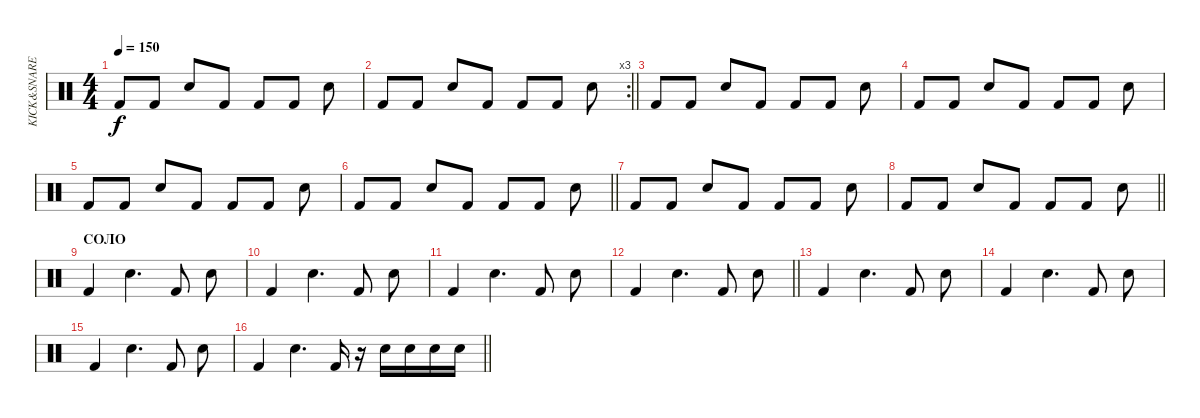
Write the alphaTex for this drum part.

\track ("KICK&SNARE" "KICK&SNARE") {instrument percussion}
\staff {score}
\articulation defaults
\ts (4 4)
\tempo 150
\clef neutral
\ks c "Kick (hit) 2".8{dy f} "Kick (hit) 2".8 "Snare (hit) 2".8 "Kick (hit) 2".8 "Kick (hit) 2".8 "Kick (hit) 2".8 "Snare (hit) 2".8
|
\rc 3
\barLineRight lightlight "Kick (hit) 2".8 "Kick (hit) 2".8 "Snare (hit) 2".8 "Kick (hit) 2".8 "Kick (hit) 2".8 "Kick (hit) 2".8 "Snare (hit) 2".8
|
"Kick (hit) 2".8 "Kick (hit) 2".8 "Snare (hit) 2".8 "Kick (hit) 2".8 "Kick (hit) 2".8 "Kick (hit) 2".8 "Snare (hit) 2".8 |
"Kick (hit) 2".8 "Kick (hit) 2".8 "Snare (hit) 2".8 "Kick (hit) 2".8 "Kick (hit) 2".8 "Kick (hit) 2".8 "Snare (hit) 2".8 |
"Kick (hit) 2".8 "Kick (hit) 2".8 "Snare (hit) 2".8 "Kick (hit) 2".8 "Kick (hit) 2".8 "Kick (hit) 2".8 "Snare (hit) 2".8 |
\barLineRight lightlight "Kick (hit) 2".8 "Kick (hit) 2".8 "Snare (hit) 2".8 "Kick (hit) 2".8 "Kick (hit) 2".8 "Kick (hit) 2".8 "Snare (hit) 2".8
|
"Kick (hit) 2".8 "Kick (hit) 2".8 "Snare (hit) 2".8 "Kick (hit) 2".8 "Kick (hit) 2".8 "Kick (hit) 2".8 "Snare (hit) 2".8 |
\barLineRight lightlight "Kick (hit) 2".8 "Kick (hit) 2".8 "Snare (hit) 2".8 "Kick (hit) 2".8 "Kick (hit) 2".8 "Kick (hit) 2".8 "Snare (hit) 2".8
|
\section ("" "СОЛО")
"Kick (hit) 2".4 "Snare (hit) 2".4{d} "Kick (hit) 2".8 "Snare (hit) 2".8 |
"Kick (hit) 2".4 "Snare (hit) 2".4{d} "Kick (hit) 2".8 "Snare (hit) 2".8 |
"Kick (hit) 2".4 "Snare (hit) 2".4{d} "Kick (hit) 2".8 "Snare (hit) 2".8 |
\barLineRight lightlight "Kick (hit) 2".4 "Snare (hit) 2".4{d} "Kick (hit) 2".8 "Snare (hit) 2".8
|
"Kick (hit) 2".4 "Snare (hit) 2".4{d} "Kick (hit) 2".8 "Snare (hit) 2".8 |
"Kick (hit) 2".4 "Snare (hit) 2".4{d} "Kick (hit) 2".8 "Snare (hit) 2".8 |
"Kick (hit) 2".4 "Snare (hit) 2".4{d} "Kick (hit) 2".8 "Snare (hit) 2".8 |
\barLineRight lightlight "Kick (hit) 2".4 "Snare (hit) 2".4{d} "Kick (hit) 2".16
r.16 "Snare (hit) 2".16 "Snare (hit) 2".16 "Snare (hit) 2".16 "Snare (hit) 2".16
